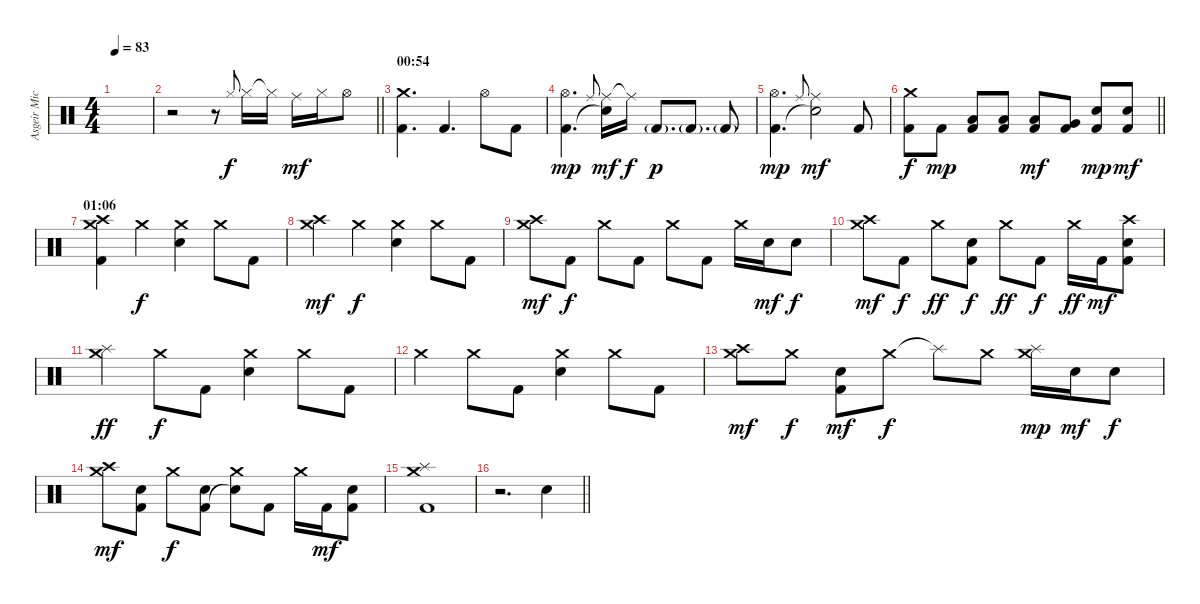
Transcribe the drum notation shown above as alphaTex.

\track ("Asgeir Mickelson" "Asgeir Mic") {instrument percussion}
\staff {score}
\articulation defaults
\ts (4 4)
\tempo 83
\clef neutral
\ks c
|
\barLineRight lightlight
r.2 r.8 "Hi-Hat (closed)".8{gr onbeat} "Hi-Hat (closed)".16{dy f} "Hi-Hat (closed)"{t}.16 "Ride (middle)".16{dy mf} "Hi-Hat (closed)".16 "Hi-Hat (open)".8 |
\section ("" "00:54")
("Crash medium (hit)" "Kick (hit) 2").4{d} "Kick (hit) 2".4{d} "Hi-Hat (open)".8 "Kick (hit) 2".8 |
("Hi-Hat (open)" "Kick (hit) 2").4{d dy mp} "Ride (middle)".8{gr onbeat} ("Ride (middle)" "Snare (hit)"{t}).16{dy mf} "Ride (middle)"{t}.16{dy f} "Kick (hit) 2"{g}.8{d dy p} "Kick (hit) 2"{g}.8{d} "Kick (hit) 2"{g}.8 |
("Hi-Hat (open)" "Kick (hit) 2").4{d dy mp} "Ride (middle)".8{gr onbeat} ("Ride (middle)" "Snare (hit)"{t}).2{dy mf} "Kick (hit) 2".8 |
\barLineRight lightlight
("Crash medium (hit)" "Kick (hit) 2").8{dy f} "Kick (hit) 2".8{dy mp} ("Low Floor Tom (hit)" "Kick (hit) 2").8 ("Low Floor Tom (hit)" "Kick (hit) 2").8 ("Low Floor Tom (hit)" "Kick (hit) 2").8{dy mf} ("Very Low Tom (hit)" "Kick (hit) 2").8 ("Snare (hit) 2" "Kick (hit) 2").8{dy mp} ("Snare (hit) 2" "Kick (hit) 2").8{dy mf} |
\section ("" "01:06")
("Crash high (hit)" "Crash medium (hit)" "Kick (hit) 2").4 "Crash medium (hit)".4{dy f} ("Snare (hit) 2" "Crash medium (hit)").4 "Crash medium (hit)".8 "Kick (hit) 2".8 |
("Crash high (hit)" "Crash medium (hit)").4{dy mf} "Crash medium (hit)".4{dy f} ("Snare (hit) 2" "Crash medium (hit)").4 "Crash medium (hit)".8 "Kick (hit) 2".8 |
("Crash high (hit)" "Crash medium (hit)").8{dy mf} "Kick (hit) 2".8{dy f} "Crash medium (hit)".8 "Kick (hit) 2".8 "Crash medium (hit)".8 "Kick (hit) 2".8 "Crash medium (hit)".16 "Snare (hit) 2".16{dy mf} "Snare (hit) 2".8{dy f} |
("Crash high (hit)" "Crash medium (hit)").8{dy mf} "Kick (hit) 2".8{dy f} "Crash medium (hit)".8{dy ff} ("Snare (hit) 2" "Kick (hit) 2").8{dy f} "Crash medium (hit)".8{dy ff} "Kick (hit) 2".8{dy f} "Crash medium (hit)".16{dy ff} "Kick (hit) 2".16{dy mf} ("Crash high (hit)" "Snare (hit) 2" "Kick (hit) 2").8 |
("Crash medium (hit)" "Splash (hit)").4{dy ff} "Crash medium (hit)".8{dy f} "Kick (hit) 2".8 ("Snare (hit) 2" "Crash medium (hit)").4 "Crash medium (hit)".8 "Kick (hit) 2".8 |
"Crash medium (hit)".4 "Crash medium (hit)".8 "Kick (hit) 2".8 ("Snare (hit) 2" "Crash medium (hit)").4 "Crash medium (hit)".8 "Kick (hit) 2".8 |
("Crash high (hit)" "Crash medium (hit)").8{dy mf} "Crash medium (hit)".8{dy f} ("Snare (hit) 2" "Kick (hit) 2").8{dy mf} "Crash medium (hit)".8{dy f} "Splash (hit)"{t}.8 "Crash medium (hit)".8 ("Crash medium (hit)" "Splash (hit)").16{dy mp} "Snare (hit) 2".16{dy mf} "Snare (hit) 2".8{dy f} |
("Crash high (hit)" "Crash medium (hit)").8{dy mf} ("Snare (hit) 2" "Kick (hit) 2").8 "Crash medium (hit)".8{dy f} ("Snare (hit) 2" "Kick (hit) 2").8 ("Crash medium (hit)" "Snare (hit)"{t}).8 "Kick (hit) 2".8 "Crash medium (hit)".16 "Kick (hit) 2".16{dy mf} ("Snare (hit) 2" "Kick (hit) 2").8 |
("Crash medium (hit)" "Splash (hit)" "Kick (hit) 2").1 |
\barLineRight lightlight
r.2{d} "Snare (hit) 2".4
